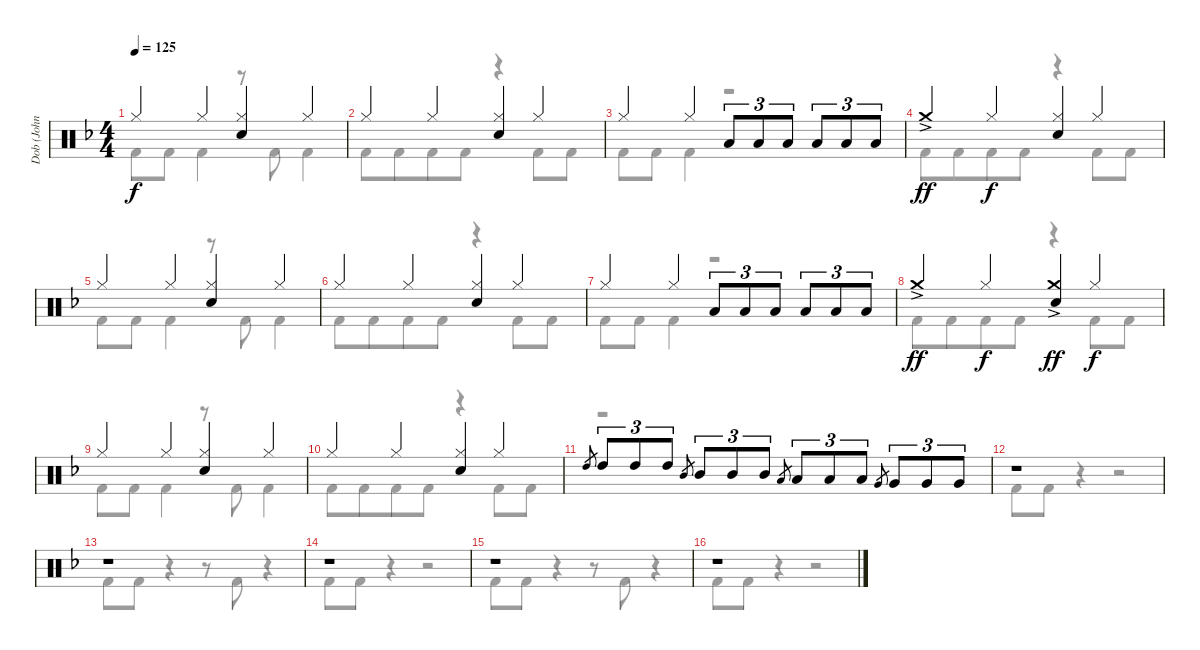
\track ("Dob (John Macaluso)" "Dob (John ") {instrument percussion}
\staff {score}
\articulation defaults
\voice
\ts (4 4)
\tempo 125
\clef neutral
\ks f "Hi-Hat (closed)".4{dy f} "Hi-Hat (closed)".4
("Hi-Hat (closed)" "Electric Snare (hit)").4 "Hi-Hat (closed)".4 |
"Hi-Hat (closed)".4 "Hi-Hat (closed)".4 ("Hi-Hat (closed)" "Electric Snare (hit)").4 "Hi-Hat (closed)".4 |
"Hi-Hat (closed)".4 "Hi-Hat (closed)".4 "Low Tom (hit)".8{tu (3 2)} "Low Tom (hit)".8{tu (3 2)} "Low Tom (hit)".8{tu (3 2)} "Low Tom (hit)".8{tu (3 2)} "Low Tom (hit)".8{tu (3 2)} "Low Tom (hit)".8{tu (3 2)} |
"Crash medium (hit)"{ac}.4{dy ff} "Hi-Hat (closed)".4{dy f} ("Hi-Hat (closed)" "Electric Snare (hit)").4 "Hi-Hat (closed)".4 |
"Hi-Hat (closed)".4 "Hi-Hat (closed)".4 ("Hi-Hat (closed)" "Electric Snare (hit)").4 "Hi-Hat (closed)".4 |
"Hi-Hat (closed)".4 "Hi-Hat (closed)".4 ("Hi-Hat (closed)" "Electric Snare (hit)").4 "Hi-Hat (closed)".4 |
"Hi-Hat (closed)".4 "Hi-Hat (closed)".4 "Low Tom (hit)".8{tu (3 2)} "Low Tom (hit)".8{tu (3 2)} "Low Tom (hit)".8{tu (3 2)} "Low Tom (hit)".8{tu (3 2)} "Low Tom (hit)".8{tu (3 2)} "Low Tom (hit)".8{tu (3 2)} |
"Crash medium (hit)"{ac}.4{dy ff} "Hi-Hat (closed)".4{dy f} ("Crash medium (hit)"{ac} "Electric Snare (hit)").4{dy ff} "Hi-Hat (closed)".4{dy f} |
"Hi-Hat (closed)".4 "Hi-Hat (closed)".4 ("Hi-Hat (closed)" "Electric Snare (hit)").4 "Hi-Hat (closed)".4 |
"Hi-Hat (closed)".4 "Hi-Hat (closed)".4 ("Hi-Hat (closed)" "Electric Snare (hit)").4 "Hi-Hat (closed)".4 |
"High Tom (hit)".8{gr} "High Tom (hit)".8{tu (3 2)} "High Tom (hit)".8{tu (3 2)} "High Tom (hit)".8{tu (3 2)} "Mid Tom (hit)".8{gr} "Mid Tom (hit)".8{tu (3 2)} "Mid Tom (hit)".8{tu (3 2)} "Mid Tom (hit)".8{tu (3 2)} "Low Tom (hit)".8{gr} "Low Tom (hit)".8{tu (3 2)} "Low Tom (hit)".8{tu (3 2)} "Low Tom (hit)".8{tu (3 2)} "Very Low Tom (hit)".8{gr} "Very Low Tom (hit)".8{tu (3 2)} "Very Low Tom (hit)".8{tu (3 2)} "Very Low Tom (hit)".8{tu (3 2)} |
r.1 |
r.1 |
r.1 |
r.1 |
r.1
\voice
\clef neutral
\ottava regular
\simile none
\ks f "Kick (hit) 2".8{dy f} "Kick (hit) 2".8 "Kick (hit) 2".4
r.8 "Kick (hit) 2".8 "Kick (hit) 2".4 |
"Kick (hit) 2".8 "Kick (hit) 2".8{beam merge} "Kick (hit) 2".8 "Kick (hit) 2".8 r.4 "Kick (hit) 2".8 "Kick (hit) 2".8 |
"Kick (hit) 2".8 "Kick (hit) 2".8 "Kick (hit) 2".4 r.2 |
"Kick (hit) 2".8 "Kick (hit) 2".8{beam merge} "Kick (hit) 2".8 "Kick (hit) 2".8 r.4 "Kick (hit) 2".8 "Kick (hit) 2".8 |
"Kick (hit) 2".8 "Kick (hit) 2".8 "Kick (hit) 2".4 r.8 "Kick (hit) 2".8 "Kick (hit) 2".4 |
"Kick (hit) 2".8 "Kick (hit) 2".8{beam merge} "Kick (hit) 2".8 "Kick (hit) 2".8 r.4 "Kick (hit) 2".8 "Kick (hit) 2".8 |
"Kick (hit) 2".8 "Kick (hit) 2".8 "Kick (hit) 2".4 r.2 |
"Kick (hit) 2".8 "Kick (hit) 2".8{beam merge} "Kick (hit) 2".8 "Kick (hit) 2".8 r.4 "Kick (hit) 2".8 "Kick (hit) 2".8 |
"Kick (hit) 2".8 "Kick (hit) 2".8 "Kick (hit) 2".4 r.8 "Kick (hit) 2".8 "Kick (hit) 2".4 |
"Kick (hit) 2".8 "Kick (hit) 2".8{beam merge} "Kick (hit) 2".8 "Kick (hit) 2".8 r.4 "Kick (hit) 2".8 "Kick (hit) 2".8 |
r.1 |
"Kick (hit) 2".8 "Kick (hit) 2".8 r.4 r.2 |
"Kick (hit) 2".8 "Kick (hit) 2".8 r.4 r.8 "Kick (hit) 2".8 r.4 |
"Kick (hit) 2".8 "Kick (hit) 2".8 r.4 r.2 |
"Kick (hit) 2".8 "Kick (hit) 2".8 r.4 r.8 "Kick (hit) 2".8 r.4 |
"Kick (hit) 2".8 "Kick (hit) 2".8 r.4 r.2
